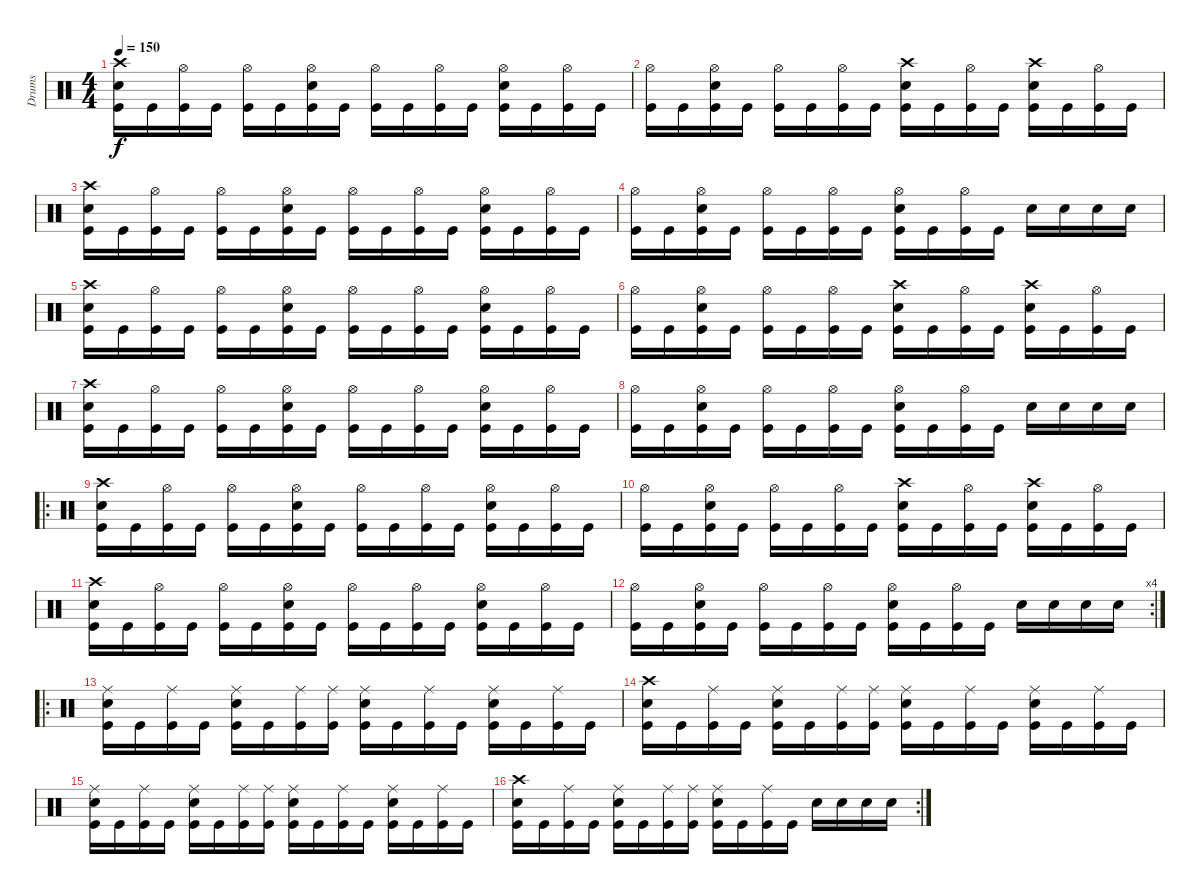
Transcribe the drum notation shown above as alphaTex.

\track ("Drums" "Drums") {instrument percussion}
\staff {score}
\articulation defaults
\ts (4 4)
\tempo 150
\clef neutral
\ks c
("Crash high (hit)" "Snare (hit) 2" "Kick (hit)").16{dy f} "Kick (hit)".16 ("Hi-Hat (open)" "Kick (hit)").16 "Kick (hit)".16 ("Hi-Hat (open)" "Kick (hit)").16 "Kick (hit)".16 ("Hi-Hat (open)" "Snare (hit) 2" "Kick (hit)").16 "Kick (hit)".16 ("Hi-Hat (open)" "Kick (hit)").16 "Kick (hit)".16 ("Hi-Hat (open)" "Kick (hit)").16 "Kick (hit)".16 ("Hi-Hat (open)" "Snare (hit) 2" "Kick (hit)").16 "Kick (hit)".16 ("Hi-Hat (open)" "Kick (hit)").16 "Kick (hit)".16 |
("Hi-Hat (open)" "Kick (hit)").16 "Kick (hit)".16 ("Hi-Hat (open)" "Snare (hit) 2" "Kick (hit)").16 "Kick (hit)".16 ("Hi-Hat (open)" "Kick (hit)").16 "Kick (hit)".16 ("Hi-Hat (open)" "Kick (hit)").16 "Kick (hit)".16 ("Crash high (hit)" "Snare (hit) 2" "Kick (hit)").16 "Kick (hit)".16 ("Hi-Hat (open)" "Kick (hit)").16 "Kick (hit)".16 ("Crash high (hit)" "Snare (hit) 2" "Kick (hit)").16 "Kick (hit)".16 ("Hi-Hat (open)" "Kick (hit)").16 "Kick (hit)".16 |
("Crash high (hit)" "Snare (hit) 2" "Kick (hit)").16 "Kick (hit)".16 ("Hi-Hat (open)" "Kick (hit)").16 "Kick (hit)".16 ("Hi-Hat (open)" "Kick (hit)").16 "Kick (hit)".16 ("Hi-Hat (open)" "Snare (hit) 2" "Kick (hit)").16 "Kick (hit)".16 ("Hi-Hat (open)" "Kick (hit)").16 "Kick (hit)".16 ("Hi-Hat (open)" "Kick (hit)").16 "Kick (hit)".16 ("Hi-Hat (open)" "Snare (hit) 2" "Kick (hit)").16 "Kick (hit)".16 ("Hi-Hat (open)" "Kick (hit)").16 "Kick (hit)".16 |
("Hi-Hat (open)" "Kick (hit)").16 "Kick (hit)".16 ("Hi-Hat (open)" "Snare (hit) 2" "Kick (hit)").16 "Kick (hit)".16 ("Hi-Hat (open)" "Kick (hit)").16 "Kick (hit)".16 ("Hi-Hat (open)" "Kick (hit)").16 "Kick (hit)".16 ("Hi-Hat (open)" "Snare (hit) 2" "Kick (hit)").16 "Kick (hit)".16 ("Hi-Hat (open)" "Kick (hit)").16 "Kick (hit)".16 "Snare (hit) 2".16 "Snare (hit) 2".16 "Snare (hit) 2".16 "Snare (hit) 2".16 |
("Crash high (hit)" "Snare (hit) 2" "Kick (hit)").16 "Kick (hit)".16 ("Hi-Hat (open)" "Kick (hit)").16 "Kick (hit)".16 ("Hi-Hat (open)" "Kick (hit)").16 "Kick (hit)".16 ("Hi-Hat (open)" "Snare (hit) 2" "Kick (hit)").16 "Kick (hit)".16 ("Hi-Hat (open)" "Kick (hit)").16 "Kick (hit)".16 ("Hi-Hat (open)" "Kick (hit)").16 "Kick (hit)".16 ("Hi-Hat (open)" "Snare (hit) 2" "Kick (hit)").16 "Kick (hit)".16 ("Hi-Hat (open)" "Kick (hit)").16 "Kick (hit)".16 |
("Hi-Hat (open)" "Kick (hit)").16 "Kick (hit)".16 ("Hi-Hat (open)" "Snare (hit) 2" "Kick (hit)").16 "Kick (hit)".16 ("Hi-Hat (open)" "Kick (hit)").16 "Kick (hit)".16 ("Hi-Hat (open)" "Kick (hit)").16 "Kick (hit)".16 ("Crash high (hit)" "Snare (hit) 2" "Kick (hit)").16 "Kick (hit)".16 ("Hi-Hat (open)" "Kick (hit)").16 "Kick (hit)".16 ("Crash high (hit)" "Snare (hit) 2" "Kick (hit)").16 "Kick (hit)".16 ("Hi-Hat (open)" "Kick (hit)").16 "Kick (hit)".16 |
("Crash high (hit)" "Snare (hit) 2" "Kick (hit)").16 "Kick (hit)".16 ("Hi-Hat (open)" "Kick (hit)").16 "Kick (hit)".16 ("Hi-Hat (open)" "Kick (hit)").16 "Kick (hit)".16 ("Hi-Hat (open)" "Snare (hit) 2" "Kick (hit)").16 "Kick (hit)".16 ("Hi-Hat (open)" "Kick (hit)").16 "Kick (hit)".16 ("Hi-Hat (open)" "Kick (hit)").16 "Kick (hit)".16 ("Hi-Hat (open)" "Snare (hit) 2" "Kick (hit)").16 "Kick (hit)".16 ("Hi-Hat (open)" "Kick (hit)").16 "Kick (hit)".16 |
("Hi-Hat (open)" "Kick (hit)").16 "Kick (hit)".16 ("Hi-Hat (open)" "Snare (hit) 2" "Kick (hit)").16 "Kick (hit)".16 ("Hi-Hat (open)" "Kick (hit)").16 "Kick (hit)".16 ("Hi-Hat (open)" "Kick (hit)").16 "Kick (hit)".16 ("Hi-Hat (open)" "Snare (hit) 2" "Kick (hit)").16 "Kick (hit)".16 ("Hi-Hat (open)" "Kick (hit)").16 "Kick (hit)".16 "Snare (hit) 2".16 "Snare (hit) 2".16 "Snare (hit) 2".16 "Snare (hit) 2".16 |
\ro
("Crash high (hit)" "Snare (hit) 2" "Kick (hit)").16 "Kick (hit)".16 ("Hi-Hat (open)" "Kick (hit)").16 "Kick (hit)".16 ("Hi-Hat (open)" "Kick (hit)").16 "Kick (hit)".16 ("Hi-Hat (open)" "Snare (hit) 2" "Kick (hit)").16 "Kick (hit)".16 ("Hi-Hat (open)" "Kick (hit)").16 "Kick (hit)".16 ("Hi-Hat (open)" "Kick (hit)").16 "Kick (hit)".16 ("Hi-Hat (open)" "Snare (hit) 2" "Kick (hit)").16 "Kick (hit)".16 ("Hi-Hat (open)" "Kick (hit)").16 "Kick (hit)".16 |
("Hi-Hat (open)" "Kick (hit)").16 "Kick (hit)".16 ("Hi-Hat (open)" "Snare (hit) 2" "Kick (hit)").16 "Kick (hit)".16 ("Hi-Hat (open)" "Kick (hit)").16 "Kick (hit)".16 ("Hi-Hat (open)" "Kick (hit)").16 "Kick (hit)".16 ("Crash high (hit)" "Snare (hit) 2" "Kick (hit)").16 "Kick (hit)".16 ("Hi-Hat (open)" "Kick (hit)").16 "Kick (hit)".16 ("Crash high (hit)" "Snare (hit) 2" "Kick (hit)").16 "Kick (hit)".16 ("Hi-Hat (open)" "Kick (hit)").16 "Kick (hit)".16 |
("Crash high (hit)" "Snare (hit) 2" "Kick (hit)").16 "Kick (hit)".16 ("Hi-Hat (open)" "Kick (hit)").16 "Kick (hit)".16 ("Hi-Hat (open)" "Kick (hit)").16 "Kick (hit)".16 ("Hi-Hat (open)" "Snare (hit) 2" "Kick (hit)").16 "Kick (hit)".16 ("Hi-Hat (open)" "Kick (hit)").16 "Kick (hit)".16 ("Hi-Hat (open)" "Kick (hit)").16 "Kick (hit)".16 ("Hi-Hat (open)" "Snare (hit) 2" "Kick (hit)").16 "Kick (hit)".16 ("Hi-Hat (open)" "Kick (hit)").16 "Kick (hit)".16 |
\rc 4
("Hi-Hat (open)" "Kick (hit)").16 "Kick (hit)".16 ("Hi-Hat (open)" "Snare (hit) 2" "Kick (hit)").16 "Kick (hit)".16 ("Hi-Hat (open)" "Kick (hit)").16 "Kick (hit)".16 ("Hi-Hat (open)" "Kick (hit)").16 "Kick (hit)".16 ("Hi-Hat (open)" "Snare (hit) 2" "Kick (hit)").16 "Kick (hit)".16 ("Hi-Hat (open)" "Kick (hit)").16 "Kick (hit)".16 "Snare (hit) 2".16 "Snare (hit) 2".16 "Snare (hit) 2".16 "Snare (hit) 2".16 |
\ro
("Ride (middle)" "Snare (hit) 2" "Kick (hit)").16 "Kick (hit)".16 ("Ride (middle)" "Kick (hit)").16 "Kick (hit)".16 ("Ride (middle)" "Snare (hit) 2" "Kick (hit)").16 "Kick (hit)".16 ("Ride (middle)" "Kick (hit)").16 ("Ride (middle)" "Kick (hit)").16 ("Ride (middle)" "Snare (hit) 2" "Kick (hit)").16 "Kick (hit)".16 ("Ride (middle)" "Kick (hit)").16 "Kick (hit)".16 ("Ride (middle)" "Snare (hit) 2" "Kick (hit)").16 "Kick (hit)".16 ("Ride (middle)" "Kick (hit)").16 "Kick (hit)".16 |
("Crash high (hit)" "Snare (hit) 2" "Kick (hit)").16 "Kick (hit)".16 ("Ride (middle)" "Kick (hit)").16 "Kick (hit)".16 ("Ride (middle)" "Snare (hit) 2" "Kick (hit)").16 "Kick (hit)".16 ("Ride (middle)" "Kick (hit)").16 ("Ride (middle)" "Kick (hit)").16 ("Ride (middle)" "Snare (hit) 2" "Kick (hit)").16 "Kick (hit)".16 ("Ride (middle)" "Kick (hit)").16 "Kick (hit)".16 ("Ride (middle)" "Snare (hit) 2" "Kick (hit)").16 "Kick (hit)".16 ("Ride (middle)" "Kick (hit)").16 "Kick (hit)".16 |
("Ride (middle)" "Snare (hit) 2" "Kick (hit)").16 "Kick (hit)".16 ("Ride (middle)" "Kick (hit)").16 "Kick (hit)".16 ("Ride (middle)" "Snare (hit) 2" "Kick (hit)").16 "Kick (hit)".16 ("Ride (middle)" "Kick (hit)").16 ("Ride (middle)" "Kick (hit)").16 ("Ride (middle)" "Snare (hit) 2" "Kick (hit)").16 "Kick (hit)".16 ("Ride (middle)" "Kick (hit)").16 "Kick (hit)".16 ("Ride (middle)" "Snare (hit) 2" "Kick (hit)").16 "Kick (hit)".16 ("Ride (middle)" "Kick (hit)").16 "Kick (hit)".16 |
\rc 2
("Crash high (hit)" "Snare (hit) 2" "Kick (hit)").16 "Kick (hit)".16 ("Ride (middle)" "Kick (hit)").16 "Kick (hit)".16 ("Ride (middle)" "Snare (hit) 2" "Kick (hit)").16 "Kick (hit)".16 ("Ride (middle)" "Kick (hit)").16 ("Ride (middle)" "Kick (hit)").16 ("Ride (middle)" "Snare (hit) 2" "Kick (hit)").16 "Kick (hit)".16 ("Ride (middle)" "Kick (hit)").16 "Kick (hit)".16 "Snare (hit) 2".16 "Snare (hit) 2".16 "Snare (hit) 2".16 "Snare (hit) 2".16
